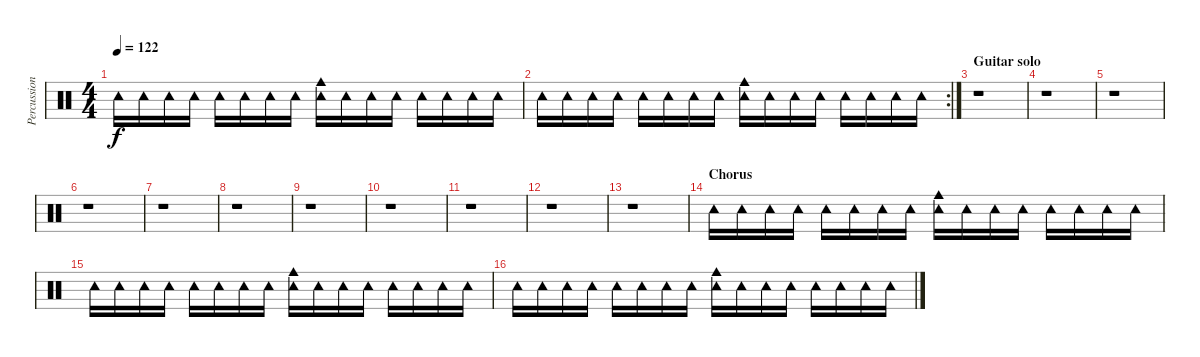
\track ("Percussion" "Percussion") {instrument percussion}
\staff {score}
\articulation defaults
\ts (4 4)
\tempo 122
\clef neutral
\ks c "Tambourine (hit)".16{dy f} "Tambourine (hit)".16 "Tambourine (hit)".16 "Tambourine (hit)".16 "Tambourine (hit)".16 "Tambourine (hit)".16 "Tambourine (hit)".16 "Tambourine (hit)".16
("Tambourine (hit)" "Cowbell medium (hit)").16 "Tambourine (hit)".16 "Tambourine (hit)".16 "Tambourine (hit)".16 "Tambourine (hit)".16 "Tambourine (hit)".16 "Tambourine (hit)".16 "Tambourine (hit)".16 |
\rc 2 "Tambourine (hit)".16 "Tambourine (hit)".16 "Tambourine (hit)".16 "Tambourine (hit)".16 "Tambourine (hit)".16 "Tambourine (hit)".16 "Tambourine (hit)".16 "Tambourine (hit)".16
("Tambourine (hit)" "Cowbell medium (hit)").16 "Tambourine (hit)".16 "Tambourine (hit)".16 "Tambourine (hit)".16 "Tambourine (hit)".16 "Tambourine (hit)".16 "Tambourine (hit)".16 "Tambourine (hit)".16 |
\section ("" "Guitar solo")
r.1 |
r.1 |
r.1 |
r.1 |
r.1 |
r.1 |
r.1 |
r.1 |
r.1 |
r.1 |
r.1 |
\section ("" "Chorus")
"Tambourine (hit)".16 "Tambourine (hit)".16 "Tambourine (hit)".16 "Tambourine (hit)".16 "Tambourine (hit)".16 "Tambourine (hit)".16 "Tambourine (hit)".16 "Tambourine (hit)".16 ("Tambourine (hit)" "Cowbell medium (hit)").16 "Tambourine (hit)".16 "Tambourine (hit)".16 "Tambourine (hit)".16 "Tambourine (hit)".16 "Tambourine (hit)".16 "Tambourine (hit)".16 "Tambourine (hit)".16 |
"Tambourine (hit)".16 "Tambourine (hit)".16 "Tambourine (hit)".16 "Tambourine (hit)".16 "Tambourine (hit)".16 "Tambourine (hit)".16 "Tambourine (hit)".16 "Tambourine (hit)".16 ("Tambourine (hit)" "Cowbell medium (hit)").16 "Tambourine (hit)".16 "Tambourine (hit)".16 "Tambourine (hit)".16 "Tambourine (hit)".16 "Tambourine (hit)".16 "Tambourine (hit)".16 "Tambourine (hit)".16 |
"Tambourine (hit)".16 "Tambourine (hit)".16 "Tambourine (hit)".16 "Tambourine (hit)".16 "Tambourine (hit)".16 "Tambourine (hit)".16 "Tambourine (hit)".16 "Tambourine (hit)".16 ("Tambourine (hit)" "Cowbell medium (hit)").16 "Tambourine (hit)".16 "Tambourine (hit)".16 "Tambourine (hit)".16 "Tambourine (hit)".16 "Tambourine (hit)".16 "Tambourine (hit)".16 "Tambourine (hit)".16
